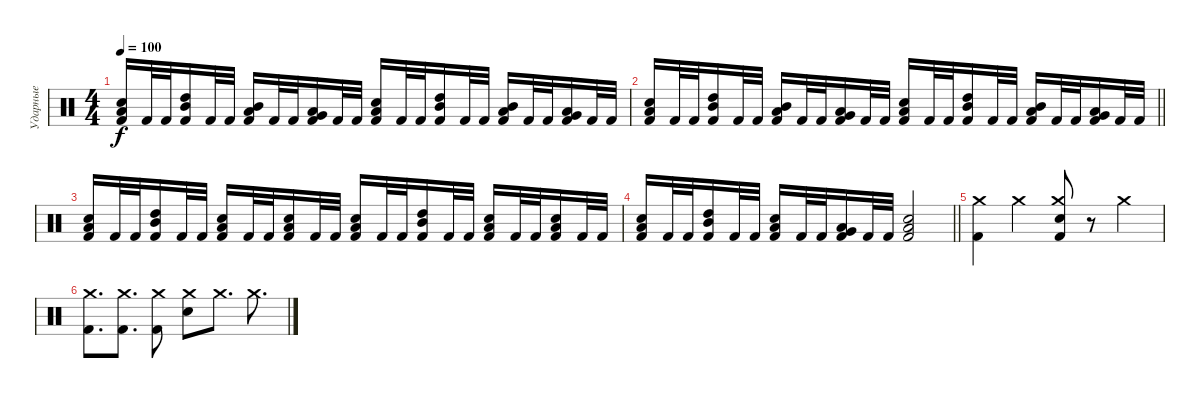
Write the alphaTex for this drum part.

\track ("Ударные" "Ударные") {instrument percussion}
\staff {score}
\articulation defaults
\ts (4 4)
\tempo 100
\clef neutral
\ks c
("Low Floor Tom (hit)" "Electric Snare (hit)" "Kick (hit) 2").16{dy f} "Kick (hit) 2".32 "Kick (hit) 2".32 ("High Tom (hit)" "Mid Tom (hit)" "Kick (hit) 2").16 "Kick (hit) 2".32 "Kick (hit) 2".32 ("Mid Tom (hit)" "Low Tom (hit)" "Kick (hit) 2").16 "Kick (hit) 2".32 "Kick (hit) 2".32 ("Very Low Tom (hit)" "Low Tom (hit)" "Kick (hit) 2").16 "Kick (hit) 2".32 "Kick (hit) 2".32 ("Low Floor Tom (hit)" "Electric Snare (hit)" "Kick (hit) 2").16 "Kick (hit) 2".32 "Kick (hit) 2".32 ("High Tom (hit)" "Mid Tom (hit)" "Kick (hit) 2").16 "Kick (hit) 2".32 "Kick (hit) 2".32 ("Mid Tom (hit)" "Low Tom (hit)" "Kick (hit) 2").16 "Kick (hit) 2".32 "Kick (hit) 2".32 ("Very Low Tom (hit)" "Low Tom (hit)" "Kick (hit) 2").16 "Kick (hit) 2".32 "Kick (hit) 2".32 |
\barLineRight lightlight
("Low Floor Tom (hit)" "Electric Snare (hit)" "Kick (hit) 2").16 "Kick (hit) 2".32 "Kick (hit) 2".32 ("High Tom (hit)" "Mid Tom (hit)" "Kick (hit) 2").16 "Kick (hit) 2".32 "Kick (hit) 2".32 ("Mid Tom (hit)" "Low Tom (hit)" "Kick (hit) 2").16 "Kick (hit) 2".32 "Kick (hit) 2".32 ("Very Low Tom (hit)" "Low Tom (hit)" "Kick (hit) 2").16 "Kick (hit) 2".32 "Kick (hit) 2".32 ("Low Floor Tom (hit)" "Electric Snare (hit)" "Kick (hit) 2").16 "Kick (hit) 2".32 "Kick (hit) 2".32 ("High Tom (hit)" "Mid Tom (hit)" "Kick (hit) 2").16 "Kick (hit) 2".32 "Kick (hit) 2".32 ("Mid Tom (hit)" "Low Tom (hit)" "Kick (hit) 2").16 "Kick (hit) 2".32 "Kick (hit) 2".32 ("Very Low Tom (hit)" "Low Tom (hit)" "Kick (hit) 2").16 "Kick (hit) 2".32 "Kick (hit) 2".32 |
("Low Floor Tom (hit)" "Electric Snare (hit)" "Kick (hit) 2").16 "Kick (hit) 2".32 "Kick (hit) 2".32 ("High Tom (hit)" "Mid Tom (hit)" "Kick (hit) 2").16 "Kick (hit) 2".32 "Kick (hit) 2".32 ("Low Floor Tom (hit)" "Electric Snare (hit)" "Kick (hit) 2").16 "Kick (hit) 2".32 "Kick (hit) 2".32 ("Low Floor Tom (hit)" "Electric Snare (hit)" "Kick (hit) 2").16 "Kick (hit) 2".32 "Kick (hit) 2".32 ("Low Floor Tom (hit)" "Electric Snare (hit)" "Kick (hit) 2").16 "Kick (hit) 2".32 "Kick (hit) 2".32 ("High Tom (hit)" "Mid Tom (hit)" "Kick (hit) 2").16 "Kick (hit) 2".32 "Kick (hit) 2".32 ("Low Floor Tom (hit)" "Electric Snare (hit)" "Kick (hit) 2").16 "Kick (hit) 2".32 "Kick (hit) 2".32 ("Low Floor Tom (hit)" "Electric Snare (hit)" "Kick (hit) 2").16 "Kick (hit) 2".32 "Kick (hit) 2".32 |
\barLineRight lightlight
("Low Floor Tom (hit)" "Electric Snare (hit)" "Kick (hit) 2").16 "Kick (hit) 2".32 "Kick (hit) 2".32 ("High Tom (hit)" "Mid Tom (hit)" "Kick (hit) 2").16 "Kick (hit) 2".32 "Kick (hit) 2".32 ("Low Floor Tom (hit)" "Electric Snare (hit)" "Kick (hit) 2").16 "Kick (hit) 2".32 "Kick (hit) 2".32 ("Very Low Tom (hit)" "Low Tom (hit)" "Kick (hit) 2").16 "Kick (hit) 2".32 "Kick (hit) 2".32 ("Low Floor Tom (hit)" "Electric Snare (hit)" "Kick (hit) 2").2 |
("Crash medium (hit)" "Kick (hit) 2").4 "Crash medium (hit)".4 ("Crash medium (hit)" "Snare (hit) 2" "Kick (hit) 2").8 r.8 "Crash medium (hit)".4 |
("Crash medium (hit)" "Kick (hit) 2").8{d} ("Crash medium (hit)" "Kick (hit) 2").8{d} ("Crash medium (hit)" "Kick (hit) 2").8 ("Crash medium (hit)" "Snare (hit) 2").8 "Crash medium (hit)".8{d} "Crash medium (hit)".8{d}
